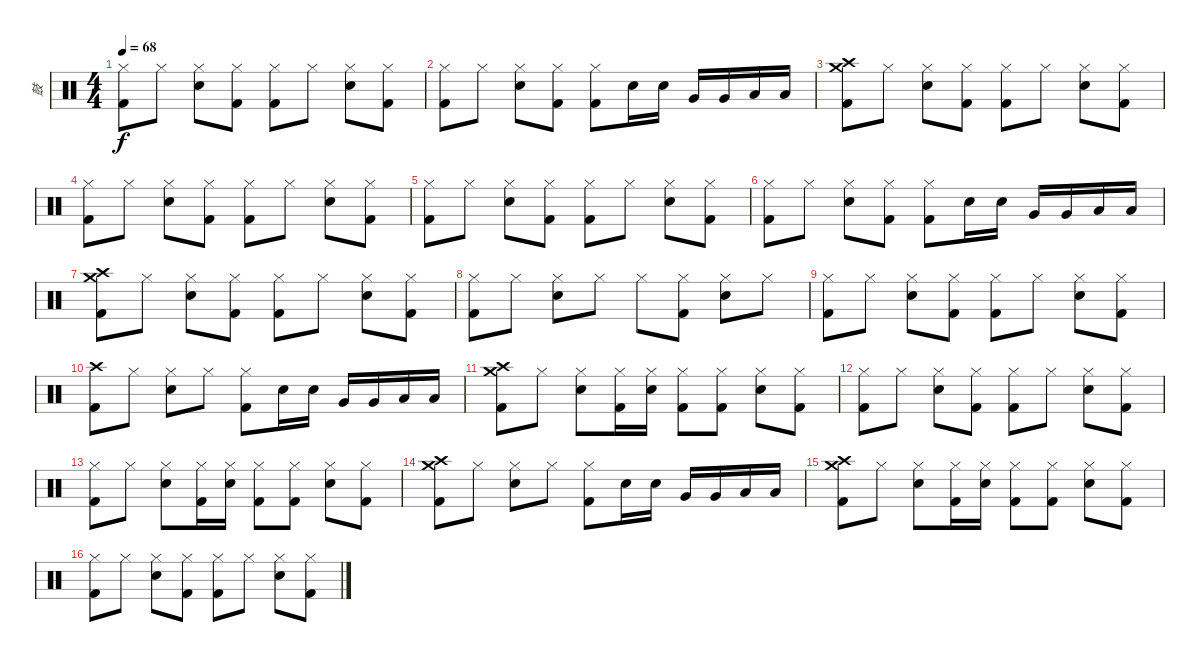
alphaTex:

\track ("鼓" "鼓") {instrument percussion}
\staff {score}
\articulation defaults
\ts (4 4)
\tempo 68
\clef neutral
\ks c
("Kick (hit) 2" "Hi-Hat (closed)").8{dy f} "Hi-Hat (closed)".8 ("Snare (hit) 2" "Hi-Hat (closed)").8 ("Kick (hit) 2" "Hi-Hat (closed)").8 ("Kick (hit) 2" "Hi-Hat (closed)").8 "Hi-Hat (closed)".8 ("Snare (hit) 2" "Hi-Hat (closed)").8 ("Kick (hit) 2" "Hi-Hat (closed)").8 |
("Kick (hit) 2" "Hi-Hat (closed)").8 "Hi-Hat (closed)".8 ("Snare (hit) 2" "Hi-Hat (closed)").8 ("Kick (hit) 2" "Hi-Hat (closed)").8 ("Kick (hit) 2" "Hi-Hat (closed)").8 "Electric Snare (hit)".16 "Electric Snare (hit)".16 "Very Low Tom (hit)".16 "Very Low Tom (hit)".16 "Low Tom (hit)".16 "Low Tom (hit)".16 |
("Kick (hit) 2" "Crash medium (hit)" "Crash high (hit)").8 "Hi-Hat (closed)".8 ("Snare (hit) 2" "Hi-Hat (closed)").8 ("Kick (hit) 2" "Hi-Hat (closed)").8 ("Kick (hit) 2" "Hi-Hat (closed)").8 "Hi-Hat (closed)".8 ("Snare (hit) 2" "Hi-Hat (closed)").8 ("Kick (hit) 2" "Hi-Hat (closed)").8 |
("Kick (hit) 2" "Hi-Hat (closed)").8 "Hi-Hat (closed)".8 ("Snare (hit) 2" "Hi-Hat (closed)").8 ("Kick (hit) 2" "Hi-Hat (closed)").8 ("Kick (hit) 2" "Hi-Hat (closed)").8 "Hi-Hat (closed)".8 ("Snare (hit) 2" "Hi-Hat (closed)").8 ("Kick (hit) 2" "Hi-Hat (closed)").8 |
("Kick (hit) 2" "Hi-Hat (closed)").8 "Hi-Hat (closed)".8 ("Snare (hit) 2" "Hi-Hat (closed)").8 ("Kick (hit) 2" "Hi-Hat (closed)").8 ("Kick (hit) 2" "Hi-Hat (closed)").8 "Hi-Hat (closed)".8 ("Snare (hit) 2" "Hi-Hat (closed)").8 ("Kick (hit) 2" "Hi-Hat (closed)").8 |
("Kick (hit) 2" "Hi-Hat (closed)").8 "Hi-Hat (closed)".8 ("Snare (hit) 2" "Hi-Hat (closed)").8 ("Kick (hit) 2" "Hi-Hat (closed)").8 ("Kick (hit) 2" "Hi-Hat (closed)").8 "Electric Snare (hit)".16 "Electric Snare (hit)".16 "Very Low Tom (hit)".16 "Very Low Tom (hit)".16 "Low Tom (hit)".16 "Low Tom (hit)".16 |
("Kick (hit) 2" "Crash medium (hit)" "Crash high (hit)").8 "Hi-Hat (closed)".8 ("Snare (hit) 2" "Hi-Hat (closed)").8 ("Kick (hit) 2" "Hi-Hat (closed)").8 ("Kick (hit) 2" "Hi-Hat (closed)").8 "Hi-Hat (closed)".8 ("Snare (hit) 2" "Hi-Hat (closed)").8 ("Kick (hit) 2" "Hi-Hat (closed)").8 |
("Kick (hit) 2" "Hi-Hat (closed)").8 "Hi-Hat (closed)".8 ("Snare (hit) 2" "Hi-Hat (closed)").8 "Hi-Hat (closed)".8 "Hi-Hat (closed)".8 ("Kick (hit) 2" "Hi-Hat (closed)").8 ("Snare (hit) 2" "Hi-Hat (closed)").8 "Hi-Hat (closed)".8 |
("Kick (hit) 2" "Hi-Hat (closed)").8 "Hi-Hat (closed)".8 ("Snare (hit) 2" "Hi-Hat (closed)").8 ("Kick (hit) 2" "Hi-Hat (closed)").8 ("Kick (hit) 2" "Hi-Hat (closed)").8 "Hi-Hat (closed)".8 ("Snare (hit) 2" "Hi-Hat (closed)").8 ("Kick (hit) 2" "Hi-Hat (closed)").8 |
("Kick (hit) 2" "Crash high (hit)").8 "Hi-Hat (closed)".8 ("Snare (hit) 2" "Hi-Hat (closed)").8 "Hi-Hat (closed)".8 ("Kick (hit) 2" "Hi-Hat (closed)").8 "Electric Snare (hit)".16 "Electric Snare (hit)".16 "Very Low Tom (hit)".16 "Very Low Tom (hit)".16 "Low Tom (hit)".16 "Low Tom (hit)".16 |
("Kick (hit) 2" "Crash high (hit)" "Crash medium (hit)").8 "Hi-Hat (closed)".8 ("Snare (hit) 2" "Hi-Hat (closed)").8 ("Kick (hit) 2" "Hi-Hat (closed)").16 ("Snare (hit) 2" "Hi-Hat (closed)").16 ("Kick (hit) 2" "Hi-Hat (closed)").8 ("Kick (hit) 2" "Hi-Hat (closed)").8 ("Snare (hit) 2" "Hi-Hat (closed)").8 ("Kick (hit) 2" "Hi-Hat (closed)").8 |
("Kick (hit) 2" "Hi-Hat (closed)").8 "Hi-Hat (closed)".8 ("Snare (hit) 2" "Hi-Hat (closed)").8 ("Kick (hit) 2" "Hi-Hat (closed)").8 ("Kick (hit) 2" "Hi-Hat (closed)").8 "Hi-Hat (closed)".8 ("Snare (hit) 2" "Hi-Hat (closed)").8 ("Kick (hit) 2" "Hi-Hat (closed)").8 |
("Kick (hit) 2" "Hi-Hat (closed)").8 "Hi-Hat (closed)".8 ("Snare (hit) 2" "Hi-Hat (closed)").8 ("Kick (hit) 2" "Hi-Hat (closed)").16 ("Snare (hit) 2" "Hi-Hat (closed)").16 ("Kick (hit) 2" "Hi-Hat (closed)").8 ("Kick (hit) 2" "Hi-Hat (closed)").8 ("Snare (hit) 2" "Hi-Hat (closed)").8 ("Kick (hit) 2" "Hi-Hat (closed)").8 |
("Kick (hit) 2" "Crash medium (hit)" "Crash high (hit)").8 "Hi-Hat (closed)".8 ("Snare (hit) 2" "Hi-Hat (closed)").8 "Hi-Hat (closed)".8 ("Kick (hit) 2" "Hi-Hat (closed)").8 "Electric Snare (hit)".16 "Electric Snare (hit)".16 "Very Low Tom (hit)".16 "Very Low Tom (hit)".16 "Low Tom (hit)".16 "Low Tom (hit)".16 |
("Kick (hit) 2" "Crash high (hit)" "Crash medium (hit)").8 "Hi-Hat (closed)".8 ("Snare (hit) 2" "Hi-Hat (closed)").8 ("Kick (hit) 2" "Hi-Hat (closed)").16 ("Snare (hit) 2" "Hi-Hat (closed)").16 ("Kick (hit) 2" "Hi-Hat (closed)").8 ("Kick (hit) 2" "Hi-Hat (closed)").8 ("Snare (hit) 2" "Hi-Hat (closed)").8 ("Kick (hit) 2" "Hi-Hat (closed)").8 |
("Kick (hit) 2" "Hi-Hat (closed)").8 "Hi-Hat (closed)".8 ("Snare (hit) 2" "Hi-Hat (closed)").8 ("Kick (hit) 2" "Hi-Hat (closed)").8 ("Kick (hit) 2" "Hi-Hat (closed)").8 "Hi-Hat (closed)".8 ("Snare (hit) 2" "Hi-Hat (closed)").8 ("Kick (hit) 2" "Hi-Hat (closed)").8
